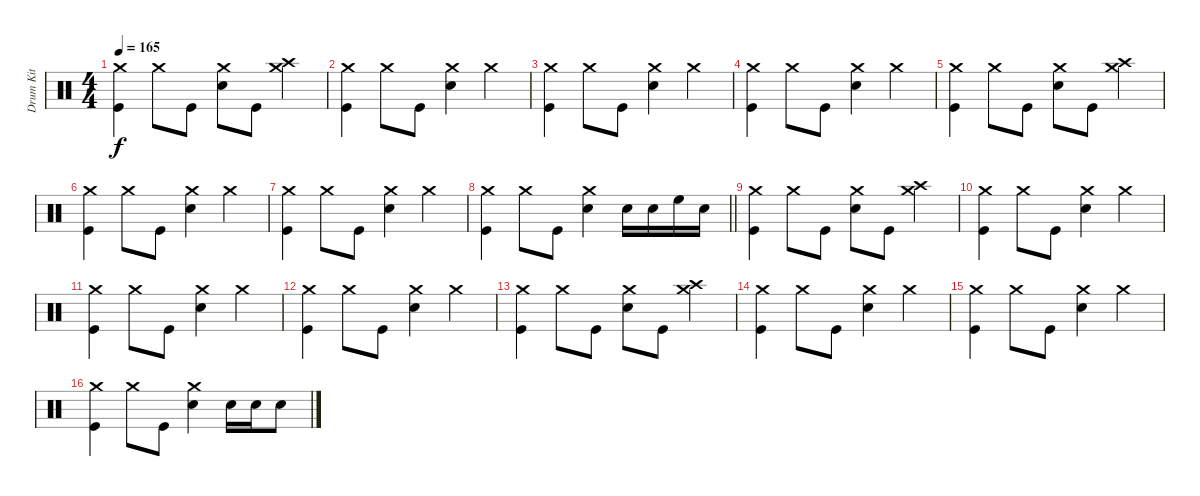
\track ("Drum Kit" "Drum Kit") {instrument percussion}
\staff {score}
\articulation defaults
\ts (4 4)
\tempo 165
\clef neutral
\ks c
("Crash medium (hit)" "Kick (hit)").4{dy f} "Crash medium (hit)".8 "Kick (hit)".8 ("Snare (hit) 2" "Crash medium (hit)").8 "Kick (hit)".8 ("Crash medium (hit)" "Crash high (hit)").4 |
("Crash medium (hit)" "Kick (hit)").4 "Crash medium (hit)".8 "Kick (hit)".8 ("Snare (hit) 2" "Crash medium (hit)").4 "Crash medium (hit)".4 |
("Crash medium (hit)" "Kick (hit)").4 "Crash medium (hit)".8 "Kick (hit)".8 ("Snare (hit) 2" "Crash medium (hit)").4 "Crash medium (hit)".4 |
("Crash medium (hit)" "Kick (hit)").4 "Crash medium (hit)".8 "Kick (hit)".8 ("Snare (hit) 2" "Crash medium (hit)").4 "Crash medium (hit)".4 |
("Crash medium (hit)" "Kick (hit)").4 "Crash medium (hit)".8 "Kick (hit)".8 ("Snare (hit) 2" "Crash medium (hit)").8 "Kick (hit)".8 ("Crash medium (hit)" "Crash high (hit)").4 |
("Crash medium (hit)" "Kick (hit)").4 "Crash medium (hit)".8 "Kick (hit)".8 ("Snare (hit) 2" "Crash medium (hit)").4 "Crash medium (hit)".4 |
("Crash medium (hit)" "Kick (hit)").4 "Crash medium (hit)".8 "Kick (hit)".8 ("Snare (hit) 2" "Crash medium (hit)").4 "Crash medium (hit)".4 |
\barLineRight lightlight
("Crash medium (hit)" "Kick (hit)").4 "Crash medium (hit)".8 "Kick (hit)".8 ("Snare (hit) 2" "Crash medium (hit)").4 "Snare (hit) 2".16 "Snare (hit) 2".16 "High Floor Tom (hit)".16 "Snare (hit) 2".16 |
("Crash medium (hit)" "Kick (hit)").4 "Crash medium (hit)".8 "Kick (hit)".8 ("Snare (hit) 2" "Crash medium (hit)").8 "Kick (hit)".8 ("Crash medium (hit)" "Crash high (hit)").4 |
("Crash medium (hit)" "Kick (hit)").4 "Crash medium (hit)".8 "Kick (hit)".8 ("Snare (hit) 2" "Crash medium (hit)").4 "Crash medium (hit)".4 |
("Crash medium (hit)" "Kick (hit)").4 "Crash medium (hit)".8 "Kick (hit)".8 ("Snare (hit) 2" "Crash medium (hit)").4 "Crash medium (hit)".4 |
("Crash medium (hit)" "Kick (hit)").4 "Crash medium (hit)".8 "Kick (hit)".8 ("Snare (hit) 2" "Crash medium (hit)").4 "Crash medium (hit)".4 |
("Crash medium (hit)" "Kick (hit)").4 "Crash medium (hit)".8 "Kick (hit)".8 ("Snare (hit) 2" "Crash medium (hit)").8 "Kick (hit)".8 ("Crash medium (hit)" "Crash high (hit)").4 |
("Crash medium (hit)" "Kick (hit)").4 "Crash medium (hit)".8 "Kick (hit)".8 ("Snare (hit) 2" "Crash medium (hit)").4 "Crash medium (hit)".4 |
("Crash medium (hit)" "Kick (hit)").4 "Crash medium (hit)".8 "Kick (hit)".8 ("Snare (hit) 2" "Crash medium (hit)").4 "Crash medium (hit)".4 |
("Crash medium (hit)" "Kick (hit)").4 "Crash medium (hit)".8 "Kick (hit)".8 ("Snare (hit) 2" "Crash medium (hit)").4 "Snare (hit) 2".16 "Snare (hit) 2".16 "Snare (hit) 2".8
